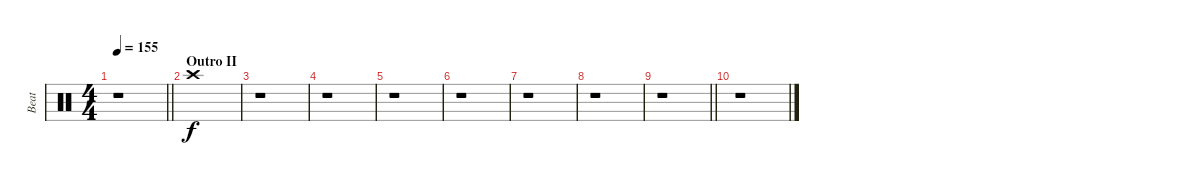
\track ("Beat" "Beat") {instrument percussion}
\staff {score}
\articulation defaults
\ts (4 4)
\tempo 155
\clef neutral
\barLineRight lightlight
\ks c
r.1{dy f} |
\section ("" "Outro II")
"Crash high (hit)".1 |
r.1 |
r.1 |
r.1 |
r.1 |
r.1 |
r.1 |
\barLineRight lightlight
r.1 |
r.1
